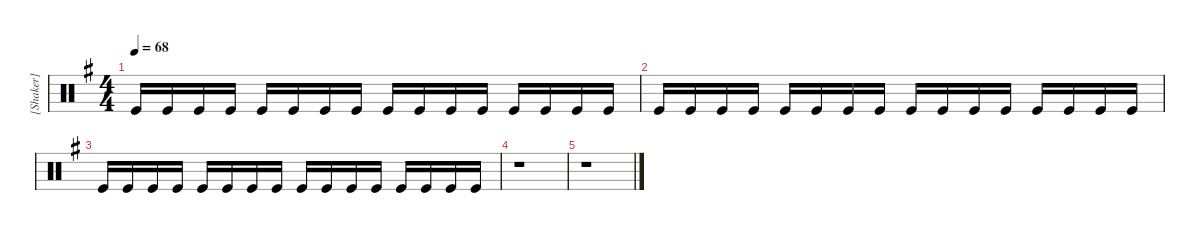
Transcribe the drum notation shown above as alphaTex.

\hideDynamics
\bracketExtendMode groupsimilarinstruments
\firstSystemTrackNameMode fullname
\otherSystemsTrackNameMode fullname
\otherSystemsTrackNameOrientation horizontal
\track ("[Shaker]" "Shaker") {instrument percussion}
\staff {score}
\articulation defaults
\ts (4 4)
\tempo 68
\clef neutral
\ks g "Kick (hit)".16{dy f} "Kick (hit)".16 "Kick (hit)".16 "Kick (hit)".16 "Kick (hit)".16 "Kick (hit)".16 "Kick (hit)".16 "Kick (hit)".16 "Kick (hit)".16 "Kick (hit)".16 "Kick (hit)".16 "Kick (hit)".16 "Kick (hit)".16 "Kick (hit)".16 "Kick (hit)".16 "Kick (hit)".16
|
"Kick (hit)".16 "Kick (hit)".16 "Kick (hit)".16 "Kick (hit)".16 "Kick (hit)".16 "Kick (hit)".16 "Kick (hit)".16 "Kick (hit)".16 "Kick (hit)".16 "Kick (hit)".16 "Kick (hit)".16 "Kick (hit)".16 "Kick (hit)".16 "Kick (hit)".16 "Kick (hit)".16 "Kick (hit)".16 |
"Kick (hit)".16 "Kick (hit)".16 "Kick (hit)".16 "Kick (hit)".16 "Kick (hit)".16 "Kick (hit)".16 "Kick (hit)".16 "Kick (hit)".16 "Kick (hit)".16 "Kick (hit)".16 "Kick (hit)".16 "Kick (hit)".16 "Kick (hit)".16 "Kick (hit)".16 "Kick (hit)".16 "Kick (hit)".16 |
r.1 |
r.1
